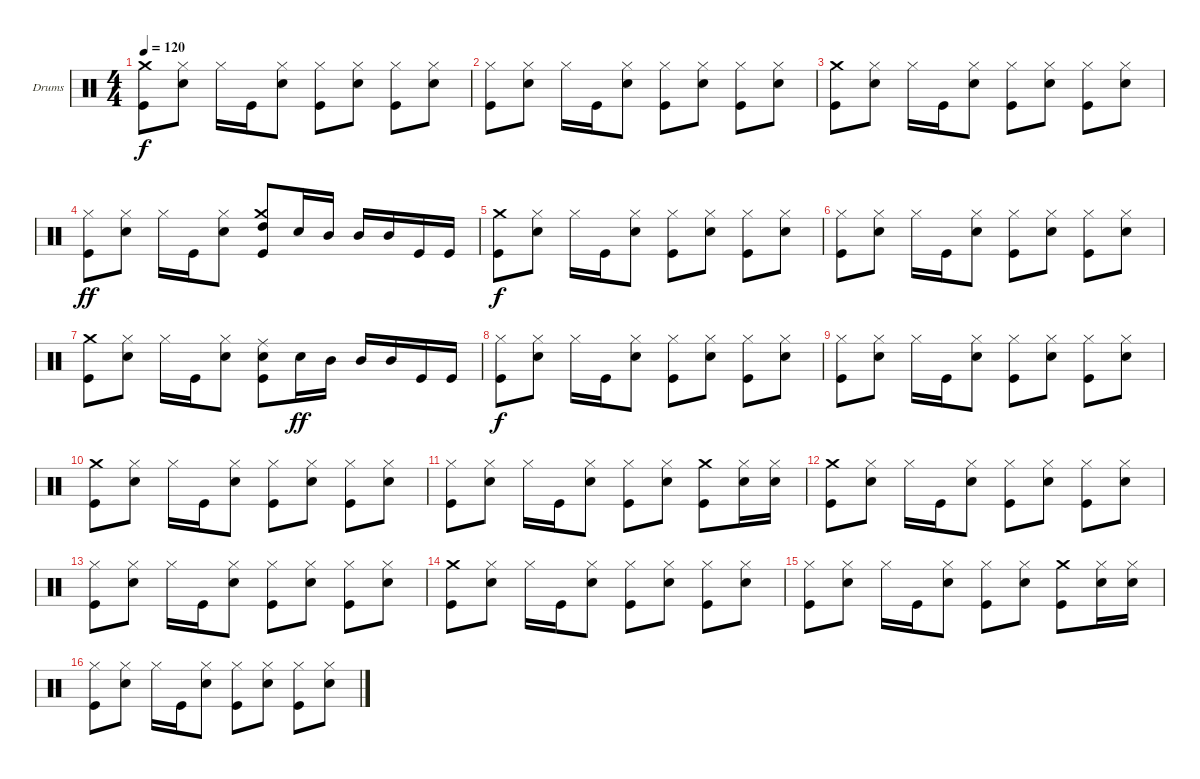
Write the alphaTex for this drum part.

\defaultSystemsLayout 4
\bracketExtendMode groupsimilarinstruments
\firstSystemTrackNameOrientation horizontal
\otherSystemsTrackNameOrientation horizontal
\track ("Drumkit" "Drums") {instrument percussion}
\staff {score}
\articulation defaults
\ts (4 4)
\tempo 120
\clef neutral
\scale
0.333333
\ks c
("Kick (hit)" "Crash medium (hit)").8{dy f} ("Snare (hit) 2" "Hi-Hat (closed)").8 "Hi-Hat (closed)".16 "Kick (hit)".16 ("Snare (hit) 2" "Hi-Hat (closed)").8 ("Kick (hit)" "Hi-Hat (closed)").8 ("Snare (hit) 2" "Hi-Hat (closed)").8 ("Kick (hit)" "Hi-Hat (closed)").8 ("Snare (hit) 2" "Hi-Hat (closed)").8 |
\scale
0.333333 ("Kick (hit)" "Hi-Hat (closed)").8 ("Snare (hit) 2" "Hi-Hat (closed)").8 "Hi-Hat (closed)".16 "Kick (hit)".16 ("Snare (hit) 2" "Hi-Hat (closed)").8 ("Kick (hit)" "Hi-Hat (closed)").8 ("Snare (hit) 2" "Hi-Hat (closed)").8 ("Kick (hit)" "Hi-Hat (closed)").8 ("Snare (hit) 2" "Hi-Hat (closed)").8 |
\scale
0.333333 ("Kick (hit)" "Crash medium (hit)").8 ("Snare (hit) 2" "Hi-Hat (closed)").8 "Hi-Hat (closed)".16 "Kick (hit)".16 ("Snare (hit) 2" "Hi-Hat (closed)").8 ("Kick (hit)" "Hi-Hat (closed)").8 ("Snare (hit) 2" "Hi-Hat (closed)").8 ("Kick (hit)" "Hi-Hat (closed)").8 ("Snare (hit) 2" "Hi-Hat (closed)").8 |
\scale
0.333333 ("Kick (hit)" "Hi-Hat (closed)").8{dy ff} ("Snare (hit) 2" "Hi-Hat (closed)").8 "Hi-Hat (closed)".16 "Kick (hit)".16 ("Snare (hit) 2" "Hi-Hat (closed)").8 ("Kick (hit)" "Crash medium (hit)" "High Tom (hit)").8 "Snare (hit) 2".16 "Mid Tom (hit)".16 "Mid Tom (hit)".16 "Mid Tom (hit)".16 "Kick (hit)".16 "Kick (hit)".16 |
\scale
0.333333 ("Kick (hit)" "Crash medium (hit)").8{dy f} ("Snare (hit) 2" "Hi-Hat (closed)").8 "Hi-Hat (closed)".16 "Kick (hit)".16 ("Snare (hit) 2" "Hi-Hat (closed)").8 ("Kick (hit)" "Hi-Hat (closed)").8 ("Snare (hit) 2" "Hi-Hat (closed)").8 ("Kick (hit)" "Hi-Hat (closed)").8 ("Snare (hit) 2" "Hi-Hat (closed)").8 |
\scale
0.333333 ("Kick (hit)" "Hi-Hat (closed)").8 ("Snare (hit) 2" "Hi-Hat (closed)").8 "Hi-Hat (closed)".16 "Kick (hit)".16 ("Snare (hit) 2" "Hi-Hat (closed)").8 ("Kick (hit)" "Hi-Hat (closed)").8 ("Snare (hit) 2" "Hi-Hat (closed)").8 ("Kick (hit)" "Hi-Hat (closed)").8 ("Snare (hit) 2" "Hi-Hat (closed)").8 |
\scale
0.333333 ("Kick (hit)" "Crash medium (hit)").8 ("Snare (hit) 2" "Hi-Hat (closed)").8 "Hi-Hat (closed)".16 "Kick (hit)".16 ("Snare (hit) 2" "Hi-Hat (closed)").8 ("Kick (hit)" "Ride (middle)" "Snare (hit) 2").8 "Snare (hit) 2".16{dy ff} "Mid Tom (hit)".16 "Mid Tom (hit)".16 "Mid Tom (hit)".16 "Kick (hit)".16 "Kick (hit)".16 |
\scale
0.333333 ("Kick (hit)" "Hi-Hat (closed)").8{dy f} ("Snare (hit) 2" "Hi-Hat (closed)").8 "Hi-Hat (closed)".16 "Kick (hit)".16 ("Snare (hit) 2" "Hi-Hat (closed)").8 ("Kick (hit)" "Hi-Hat (closed)").8 ("Snare (hit) 2" "Hi-Hat (closed)").8 ("Kick (hit)" "Hi-Hat (closed)").8 ("Snare (hit) 2" "Hi-Hat (closed)").8 |
\scale
0.333333 ("Kick (hit)" "Hi-Hat (closed)").8 ("Snare (hit) 2" "Hi-Hat (closed)").8 "Hi-Hat (closed)".16 "Kick (hit)".16 ("Snare (hit) 2" "Hi-Hat (closed)").8 ("Kick (hit)" "Hi-Hat (closed)").8 ("Snare (hit) 2" "Hi-Hat (closed)").8 ("Kick (hit)" "Hi-Hat (closed)").8 ("Snare (hit) 2" "Hi-Hat (closed)").8 |
\scale
0.333333 ("Kick (hit)" "Crash medium (hit)").8 ("Snare (hit) 2" "Hi-Hat (closed)").8 "Hi-Hat (closed)".16 "Kick (hit)".16 ("Snare (hit) 2" "Hi-Hat (closed)").8 ("Kick (hit)" "Hi-Hat (closed)").8 ("Snare (hit) 2" "Hi-Hat (closed)").8 ("Kick (hit)" "Hi-Hat (closed)").8 ("Snare (hit) 2" "Hi-Hat (closed)").8 |
\scale
0.333333 ("Kick (hit)" "Hi-Hat (closed)").8 ("Snare (hit) 2" "Hi-Hat (closed)").8 "Hi-Hat (closed)".16 "Kick (hit)".16 ("Snare (hit) 2" "Hi-Hat (closed)").8 ("Kick (hit)" "Hi-Hat (closed)").8 ("Snare (hit) 2" "Hi-Hat (closed)").8 ("Kick (hit)" "Crash medium (hit)").8 ("Snare (hit) 2" "Hi-Hat (closed)").16 ("Snare (hit) 2" "Hi-Hat (closed)").16 |
\scale
0.333333 ("Kick (hit)" "Crash medium (hit)").8 ("Snare (hit) 2" "Hi-Hat (closed)").8 "Hi-Hat (closed)".16 "Kick (hit)".16 ("Snare (hit) 2" "Hi-Hat (closed)").8 ("Kick (hit)" "Hi-Hat (closed)").8 ("Snare (hit) 2" "Hi-Hat (closed)").8 ("Kick (hit)" "Hi-Hat (closed)").8 ("Snare (hit) 2" "Hi-Hat (closed)").8 |
\scale
0.333333 ("Kick (hit)" "Hi-Hat (closed)").8 ("Snare (hit) 2" "Hi-Hat (closed)").8 "Hi-Hat (closed)".16 "Kick (hit)".16 ("Snare (hit) 2" "Hi-Hat (closed)").8 ("Kick (hit)" "Hi-Hat (closed)").8 ("Snare (hit) 2" "Hi-Hat (closed)").8 ("Kick (hit)" "Hi-Hat (closed)").8 ("Snare (hit) 2" "Hi-Hat (closed)").8 |
\scale
0.333333 ("Kick (hit)" "Crash medium (hit)").8 ("Snare (hit) 2" "Hi-Hat (closed)").8 "Hi-Hat (closed)".16 "Kick (hit)".16 ("Snare (hit) 2" "Hi-Hat (closed)").8 ("Kick (hit)" "Hi-Hat (closed)").8 ("Snare (hit) 2" "Hi-Hat (closed)").8 ("Kick (hit)" "Hi-Hat (closed)").8 ("Snare (hit) 2" "Hi-Hat (closed)").8 |
\scale
0.333333 ("Kick (hit)" "Hi-Hat (closed)").8 ("Snare (hit) 2" "Hi-Hat (closed)").8 "Hi-Hat (closed)".16 "Kick (hit)".16 ("Snare (hit) 2" "Hi-Hat (closed)").8 ("Kick (hit)" "Hi-Hat (closed)").8 ("Snare (hit) 2" "Hi-Hat (closed)").8 ("Kick (hit)" "Crash medium (hit)").8 ("Snare (hit) 2" "Hi-Hat (closed)").16 ("Snare (hit) 2" "Hi-Hat (closed)").16 |
\scale
0.333333 ("Kick (hit)" "Hi-Hat (closed)").8 ("Snare (hit) 2" "Hi-Hat (closed)").8 "Hi-Hat (closed)".16 "Kick (hit)".16 ("Snare (hit) 2" "Hi-Hat (closed)").8 ("Kick (hit)" "Hi-Hat (closed)").8 ("Snare (hit) 2" "Hi-Hat (closed)").8 ("Kick (hit)" "Hi-Hat (closed)").8 ("Snare (hit) 2" "Hi-Hat (closed)").8
